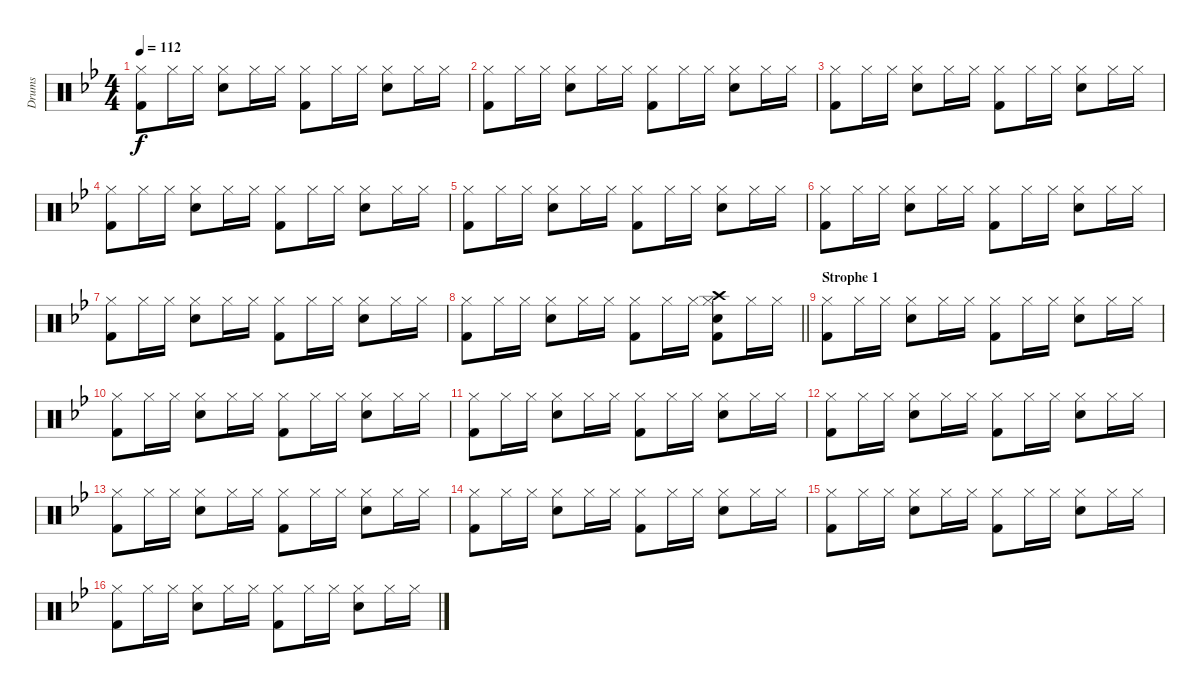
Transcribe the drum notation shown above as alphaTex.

\track ("Drums" "Drums") {instrument percussion}
\staff {score}
\articulation defaults
\ts (4 4)
\tempo 112
\clef neutral
\ks bb
("Hi-Hat (closed)" "Kick (hit) 2").8{dy f} "Hi-Hat (closed)".16 "Hi-Hat (closed)".16 ("Snare (hit) 2" "Hi-Hat (closed)").8 "Hi-Hat (closed)".16 "Hi-Hat (closed)".16 ("Hi-Hat (closed)" "Kick (hit) 2").8 "Hi-Hat (closed)".16 "Hi-Hat (closed)".16 ("Snare (hit) 2" "Hi-Hat (closed)").8 "Hi-Hat (closed)".16 "Hi-Hat (closed)".16 |
("Hi-Hat (closed)" "Kick (hit) 2").8 "Hi-Hat (closed)".16 "Hi-Hat (closed)".16 ("Snare (hit) 2" "Hi-Hat (closed)").8 "Hi-Hat (closed)".16 "Hi-Hat (closed)".16 ("Hi-Hat (closed)" "Kick (hit) 2").8 "Hi-Hat (closed)".16 "Hi-Hat (closed)".16 ("Snare (hit) 2" "Hi-Hat (closed)").8 "Hi-Hat (closed)".16 "Hi-Hat (closed)".16 |
("Hi-Hat (closed)" "Kick (hit) 2").8 "Hi-Hat (closed)".16 "Hi-Hat (closed)".16 ("Snare (hit) 2" "Hi-Hat (closed)").8 "Hi-Hat (closed)".16 "Hi-Hat (closed)".16 ("Hi-Hat (closed)" "Kick (hit) 2").8 "Hi-Hat (closed)".16 "Hi-Hat (closed)".16 ("Snare (hit) 2" "Hi-Hat (closed)").8 "Hi-Hat (closed)".16 "Hi-Hat (closed)".16 |
("Hi-Hat (closed)" "Kick (hit) 2").8 "Hi-Hat (closed)".16 "Hi-Hat (closed)".16 ("Snare (hit) 2" "Hi-Hat (closed)").8 "Hi-Hat (closed)".16 "Hi-Hat (closed)".16 ("Hi-Hat (closed)" "Kick (hit) 2").8 "Hi-Hat (closed)".16 "Hi-Hat (closed)".16 ("Snare (hit) 2" "Hi-Hat (closed)").8 "Hi-Hat (closed)".16 "Hi-Hat (closed)".16 |
("Hi-Hat (closed)" "Kick (hit) 2").8 "Hi-Hat (closed)".16 "Hi-Hat (closed)".16 ("Snare (hit) 2" "Hi-Hat (closed)").8 "Hi-Hat (closed)".16 "Hi-Hat (closed)".16 ("Hi-Hat (closed)" "Kick (hit) 2").8 "Hi-Hat (closed)".16 "Hi-Hat (closed)".16 ("Snare (hit) 2" "Hi-Hat (closed)").8 "Hi-Hat (closed)".16 "Hi-Hat (closed)".16 |
("Hi-Hat (closed)" "Kick (hit) 2").8 "Hi-Hat (closed)".16 "Hi-Hat (closed)".16 ("Snare (hit) 2" "Hi-Hat (closed)").8 "Hi-Hat (closed)".16 "Hi-Hat (closed)".16 ("Hi-Hat (closed)" "Kick (hit) 2").8 "Hi-Hat (closed)".16 "Hi-Hat (closed)".16 ("Snare (hit) 2" "Hi-Hat (closed)").8 "Hi-Hat (closed)".16 "Hi-Hat (closed)".16 |
("Hi-Hat (closed)" "Kick (hit) 2").8 "Hi-Hat (closed)".16 "Hi-Hat (closed)".16 ("Snare (hit) 2" "Hi-Hat (closed)").8 "Hi-Hat (closed)".16 "Hi-Hat (closed)".16 ("Hi-Hat (closed)" "Kick (hit) 2").8 "Hi-Hat (closed)".16 "Hi-Hat (closed)".16 ("Snare (hit) 2" "Hi-Hat (closed)").8 "Hi-Hat (closed)".16 "Hi-Hat (closed)".16 |
\barLineRight lightlight
("Hi-Hat (closed)" "Kick (hit) 2").8 "Hi-Hat (closed)".16 "Hi-Hat (closed)".16 ("Snare (hit) 2" "Hi-Hat (closed)").8 "Hi-Hat (closed)".16 "Hi-Hat (closed)".16 ("Hi-Hat (closed)" "Kick (hit) 2").8 "Hi-Hat (closed)".16 "Hi-Hat (closed)".16 ("Snare (hit) 2" "Hi-Hat (closed)" "Crash high (hit)" "Kick (hit) 2").8 "Hi-Hat (closed)".16 "Hi-Hat (closed)".16 |
\section ("" "Strophe 1")
("Hi-Hat (closed)" "Kick (hit) 2").8 "Hi-Hat (closed)".16 "Hi-Hat (closed)".16 ("Snare (hit) 2" "Hi-Hat (closed)").8 "Hi-Hat (closed)".16 "Hi-Hat (closed)".16 ("Hi-Hat (closed)" "Kick (hit) 2").8 "Hi-Hat (closed)".16 "Hi-Hat (closed)".16 ("Snare (hit) 2" "Hi-Hat (closed)").8 "Hi-Hat (closed)".16 "Hi-Hat (closed)".16 |
("Hi-Hat (closed)" "Kick (hit) 2").8 "Hi-Hat (closed)".16 "Hi-Hat (closed)".16 ("Snare (hit) 2" "Hi-Hat (closed)").8 "Hi-Hat (closed)".16 "Hi-Hat (closed)".16 ("Hi-Hat (closed)" "Kick (hit) 2").8 "Hi-Hat (closed)".16 "Hi-Hat (closed)".16 ("Snare (hit) 2" "Hi-Hat (closed)").8 "Hi-Hat (closed)".16 "Hi-Hat (closed)".16 |
("Hi-Hat (closed)" "Kick (hit) 2").8 "Hi-Hat (closed)".16 "Hi-Hat (closed)".16 ("Snare (hit) 2" "Hi-Hat (closed)").8 "Hi-Hat (closed)".16 "Hi-Hat (closed)".16 ("Hi-Hat (closed)" "Kick (hit) 2").8 "Hi-Hat (closed)".16 "Hi-Hat (closed)".16 ("Snare (hit) 2" "Hi-Hat (closed)").8 "Hi-Hat (closed)".16 "Hi-Hat (closed)".16 |
("Hi-Hat (closed)" "Kick (hit) 2").8 "Hi-Hat (closed)".16 "Hi-Hat (closed)".16 ("Snare (hit) 2" "Hi-Hat (closed)").8 "Hi-Hat (closed)".16 "Hi-Hat (closed)".16 ("Hi-Hat (closed)" "Kick (hit) 2").8 "Hi-Hat (closed)".16 "Hi-Hat (closed)".16 ("Snare (hit) 2" "Hi-Hat (closed)").8 "Hi-Hat (closed)".16 "Hi-Hat (closed)".16 |
("Hi-Hat (closed)" "Kick (hit) 2").8 "Hi-Hat (closed)".16 "Hi-Hat (closed)".16 ("Snare (hit) 2" "Hi-Hat (closed)").8 "Hi-Hat (closed)".16 "Hi-Hat (closed)".16 ("Hi-Hat (closed)" "Kick (hit) 2").8 "Hi-Hat (closed)".16 "Hi-Hat (closed)".16 ("Snare (hit) 2" "Hi-Hat (closed)").8 "Hi-Hat (closed)".16 "Hi-Hat (closed)".16 |
("Hi-Hat (closed)" "Kick (hit) 2").8 "Hi-Hat (closed)".16 "Hi-Hat (closed)".16 ("Snare (hit) 2" "Hi-Hat (closed)").8 "Hi-Hat (closed)".16 "Hi-Hat (closed)".16 ("Hi-Hat (closed)" "Kick (hit) 2").8 "Hi-Hat (closed)".16 "Hi-Hat (closed)".16 ("Snare (hit) 2" "Hi-Hat (closed)").8 "Hi-Hat (closed)".16 "Hi-Hat (closed)".16 |
("Hi-Hat (closed)" "Kick (hit) 2").8 "Hi-Hat (closed)".16 "Hi-Hat (closed)".16 ("Snare (hit) 2" "Hi-Hat (closed)").8 "Hi-Hat (closed)".16 "Hi-Hat (closed)".16 ("Hi-Hat (closed)" "Kick (hit) 2").8 "Hi-Hat (closed)".16 "Hi-Hat (closed)".16 ("Snare (hit) 2" "Hi-Hat (closed)").8 "Hi-Hat (closed)".16 "Hi-Hat (closed)".16 |
("Hi-Hat (closed)" "Kick (hit) 2").8 "Hi-Hat (closed)".16 "Hi-Hat (closed)".16 ("Snare (hit) 2" "Hi-Hat (closed)").8 "Hi-Hat (closed)".16 "Hi-Hat (closed)".16 ("Hi-Hat (closed)" "Kick (hit) 2").8 "Hi-Hat (closed)".16 "Hi-Hat (closed)".16 ("Snare (hit) 2" "Hi-Hat (closed)").8 "Hi-Hat (closed)".16 "Hi-Hat (closed)".16
